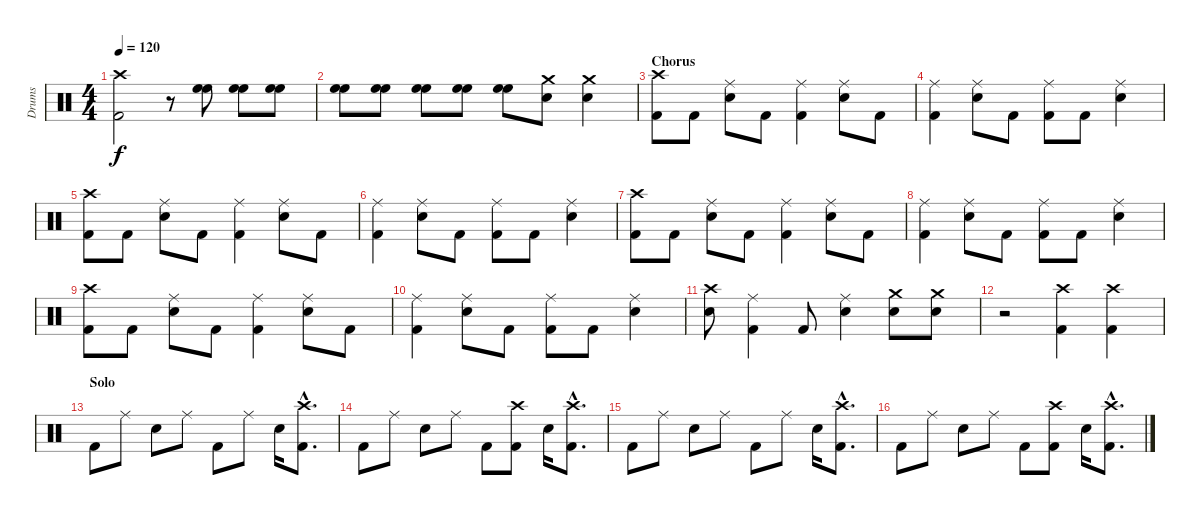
\track ("Drums" "Drums") {instrument percussion}
\staff {score}
\articulation defaults
\ts (4 4)
\tempo 120
\clef neutral
\ks c
("Crash high (hit)" "Kick (hit) 2").2{dy f} r.8 ("High Floor Tom (hit)" "High Floor Tom (hit)").8 ("High Floor Tom (hit)" "High Floor Tom (hit)").8 ("High Floor Tom (hit)" "High Floor Tom (hit)").8 |
("High Floor Tom (hit)" "High Floor Tom (hit)").8 ("High Floor Tom (hit)" "High Floor Tom (hit)").8 ("High Floor Tom (hit)" "High Floor Tom (hit)").8 ("High Floor Tom (hit)" "High Floor Tom (hit)").8 ("High Floor Tom (hit)" "High Floor Tom (hit)").8 ("Crash medium (hit)" "Snare (hit) 2").8 ("Crash medium (hit)" "Snare (hit) 2").4 |
\section ("" "Chorus")
("Crash high (hit)" "Kick (hit) 2").8 "Kick (hit) 2".8 ("Ride (middle)" "Snare (hit) 2").8 "Kick (hit) 2".8 ("Ride (middle)" "Kick (hit) 2").4 ("Ride (middle)" "Snare (hit) 2").8 "Kick (hit) 2".8 |
("Ride (middle)" "Kick (hit) 2").4 ("Ride (middle)" "Snare (hit) 2").8 "Kick (hit) 2".8 ("Ride (middle)" "Kick (hit) 2").8 "Kick (hit) 2".8 ("Ride (middle)" "Snare (hit) 2").4 |
("Crash high (hit)" "Kick (hit) 2").8 "Kick (hit) 2".8 ("Ride (middle)" "Snare (hit) 2").8 "Kick (hit) 2".8 ("Ride (middle)" "Kick (hit) 2").4 ("Ride (middle)" "Snare (hit) 2").8 "Kick (hit) 2".8 |
("Ride (middle)" "Kick (hit) 2").4 ("Ride (middle)" "Snare (hit) 2").8 "Kick (hit) 2".8 ("Ride (middle)" "Kick (hit) 2").8 "Kick (hit) 2".8 ("Ride (middle)" "Snare (hit) 2").4 |
("Crash high (hit)" "Kick (hit) 2").8 "Kick (hit) 2".8 ("Ride (middle)" "Snare (hit) 2").8 "Kick (hit) 2".8 ("Ride (middle)" "Kick (hit) 2").4 ("Ride (middle)" "Snare (hit) 2").8 "Kick (hit) 2".8 |
("Ride (middle)" "Kick (hit) 2").4 ("Ride (middle)" "Snare (hit) 2").8 "Kick (hit) 2".8 ("Ride (middle)" "Kick (hit) 2").8 "Kick (hit) 2".8 ("Ride (middle)" "Snare (hit) 2").4 |
("Crash high (hit)" "Kick (hit) 2").8 "Kick (hit) 2".8 ("Ride (middle)" "Snare (hit) 2").8 "Kick (hit) 2".8 ("Ride (middle)" "Kick (hit) 2").4 ("Ride (middle)" "Snare (hit) 2").8 "Kick (hit) 2".8 |
("Ride (middle)" "Kick (hit) 2").4 ("Ride (middle)" "Snare (hit) 2").8 "Kick (hit) 2".8 ("Ride (middle)" "Kick (hit) 2").8 "Kick (hit) 2".8 ("Ride (middle)" "Snare (hit) 2").4 |
("Crash high (hit)" "Snare (hit) 2").8 ("Ride (middle)" "Kick (hit) 2").4 "Kick (hit) 2".8 ("Ride (middle)" "Snare (hit) 2").4 ("Crash medium (hit)" "Snare (hit) 2").8 ("Crash medium (hit)" "Snare (hit) 2").8 |
r.2 ("Crash high (hit)" "Kick (hit) 2").4 ("Crash high (hit)" "Kick (hit) 2").4 |
\section ("" "Solo")
"Kick (hit) 2".8 "Ride (middle)".8 "Snare (hit) 2".8 "Ride (middle)".8 "Kick (hit) 2".8 "Ride (middle)".8 "Snare (hit) 2".16 ("Crash high (hit)"{hac} "Kick (hit) 2"{hac}).8{d} |
"Kick (hit) 2".8 "Ride (middle)".8 "Snare (hit) 2".8 "Ride (middle)".8 "Kick (hit) 2".8 ("Crash high (hit)" "Kick (hit) 2").8 "Snare (hit) 2".16 ("Crash high (hit)"{hac} "Kick (hit) 2"{hac}).8{d} |
"Kick (hit) 2".8 "Ride (middle)".8 "Snare (hit) 2".8 "Ride (middle)".8 "Kick (hit) 2".8 "Ride (middle)".8 "Snare (hit) 2".16 ("Crash high (hit)"{hac} "Kick (hit) 2"{hac}).8{d} |
"Kick (hit) 2".8 "Ride (middle)".8 "Snare (hit) 2".8 "Ride (middle)".8 "Kick (hit) 2".8 ("Crash high (hit)" "Kick (hit) 2").8 "Snare (hit) 2".16 ("Crash high (hit)"{hac} "Kick (hit) 2"{hac}).8{d}
